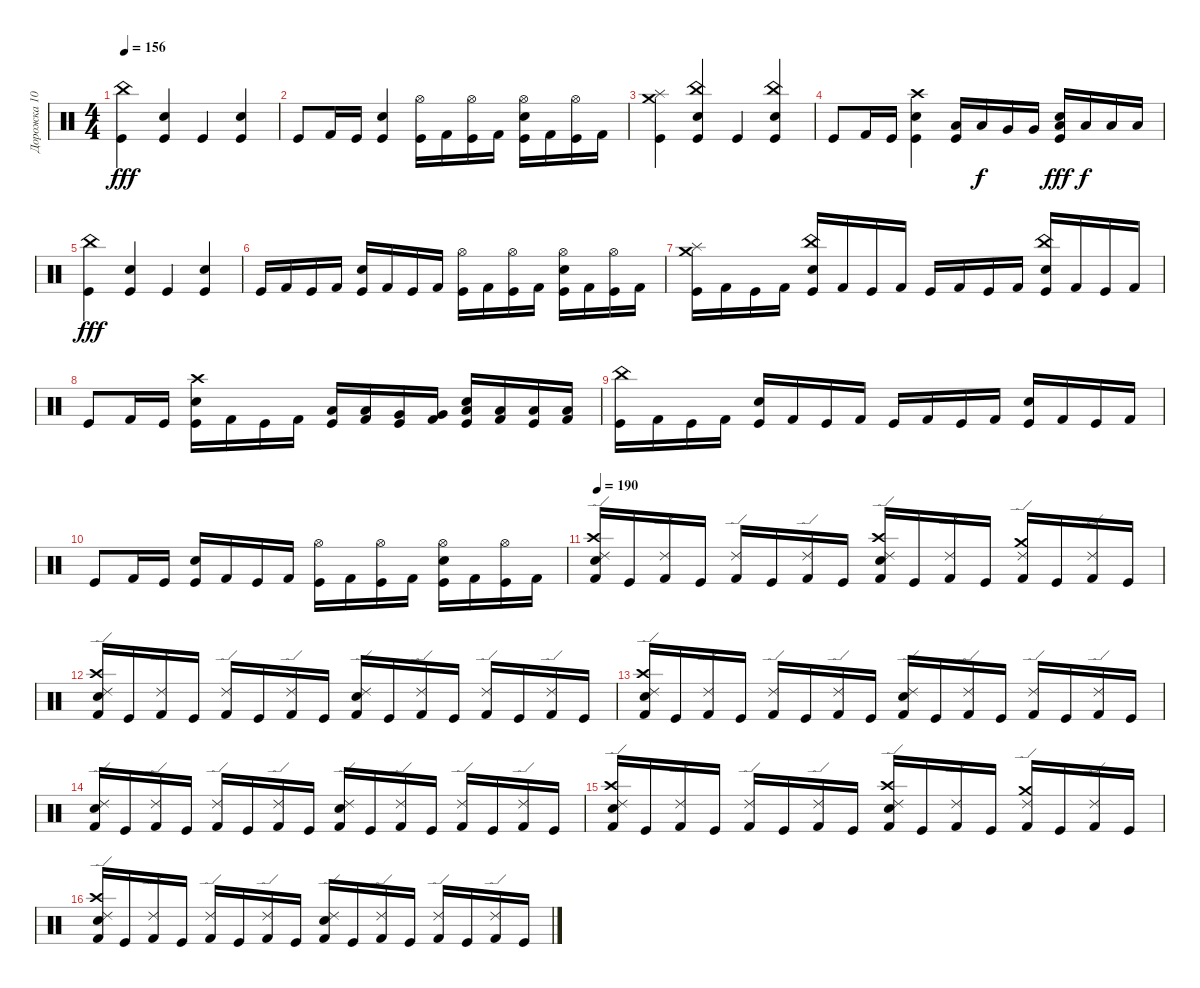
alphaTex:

\track ("Дорожка 10" "Дорожка 10") {instrument percussion}
\staff {score}
\articulation defaults
\ts (4 4)
\tempo 156
\clef neutral
\ks c
("Kick (hit)" "China (hit)").4{dy fff} ("Kick (hit)" "Snare (hit) 2").4 "Kick (hit)".4 ("Snare (hit) 2" "Kick (hit)").4 |
"Kick (hit)".8 "Kick (hit) 2".16 "Kick (hit)".16 ("Kick (hit)" "Snare (hit) 2").4 ("Hi-Hat (open)" "Kick (hit)").16 "Kick (hit) 2".16 ("Kick (hit)" "Hi-Hat (open)").16 "Kick (hit) 2".16 ("Snare (hit) 2" "Hi-Hat (open)" "Kick (hit)").16 "Kick (hit) 2".16 ("Kick (hit)" "Hi-Hat (open)").16 "Kick (hit) 2".16 |
("Kick (hit)" "Splash (hit)" "Crash medium (hit)").4 ("China (hit)" "Kick (hit)" "Snare (hit) 2").4 "Kick (hit)".4 ("China (hit)" "Kick (hit)" "Snare (hit) 2").4 |
"Kick (hit)".8 "Kick (hit) 2".16 "Kick (hit)".16 ("Kick (hit)" "Snare (hit) 2" "Crash high (hit)").4 ("Low Tom (hit)" "Kick (hit)").16 "Low Tom (hit)".16{dy f} "Very Low Tom (hit)".16 "Very Low Tom (hit)".16 ("Kick (hit)" "Snare (hit) 2" "Low Floor Tom (hit)").16{dy fff} "Low Floor Tom (hit)".16{dy f} "Low Floor Tom (hit)".16 "Low Floor Tom (hit)".16 |
("Kick (hit)" "China (hit)").4{dy fff} ("Kick (hit)" "Snare (hit) 2").4 "Kick (hit)".4 ("Kick (hit)" "Snare (hit) 2").4 |
"Kick (hit)".16 "Kick (hit) 2".16 "Kick (hit)".16 "Kick (hit) 2".16 ("Snare (hit) 2" "Kick (hit)").16 "Kick (hit) 2".16 "Kick (hit)".16 "Kick (hit) 2".16 ("Kick (hit)" "Hi-Hat (open)").16 "Kick (hit) 2".16 ("Hi-Hat (open)" "Kick (hit)").16 "Kick (hit) 2".16 ("Hi-Hat (open)" "Kick (hit)" "Snare (hit) 2").16 "Kick (hit) 2".16 ("Hi-Hat (open)" "Kick (hit)").16 "Kick (hit) 2".16 |
("Crash medium (hit)" "Kick (hit)" "Splash (hit)").16 "Kick (hit) 2".16 "Kick (hit)".16 "Kick (hit) 2".16 ("Snare (hit) 2" "Kick (hit)" "China (hit)").16 "Kick (hit) 2".16 "Kick (hit)".16 "Kick (hit) 2".16 "Kick (hit)".16 "Kick (hit) 2".16 "Kick (hit)".16 "Kick (hit) 2".16 ("Kick (hit)" "Snare (hit) 2" "China (hit)").16 "Kick (hit) 2".16 "Kick (hit)".16 "Kick (hit) 2".16 |
"Kick (hit)".8 "Kick (hit) 2".16 "Kick (hit)".16 ("Crash high (hit)" "Kick (hit)" "Snare (hit) 2").16 "Kick (hit) 2".16 "Kick (hit)".16 "Kick (hit) 2".16 ("Low Tom (hit)" "Kick (hit)").16 ("Kick (hit) 2" "Low Tom (hit)").16 ("Kick (hit)" "Very Low Tom (hit)").16 ("Kick (hit) 2" "Very Low Tom (hit)").16 ("Kick (hit)" "Snare (hit) 2" "Low Floor Tom (hit)").16 ("Low Floor Tom (hit)" "Kick (hit) 2").16 ("Low Floor Tom (hit)" "Kick (hit)").16 ("Kick (hit) 2" "Low Floor Tom (hit)").16 |
("China (hit)" "Kick (hit)").16 "Kick (hit) 2".16 "Kick (hit)".16 "Kick (hit) 2".16 ("Snare (hit) 2" "Kick (hit)").16 "Kick (hit) 2".16 "Kick (hit)".16 "Kick (hit) 2".16 "Kick (hit)".16 "Kick (hit) 2".16 "Kick (hit)".16 "Kick (hit) 2".16 ("Kick (hit)" "Snare (hit) 2").16 "Kick (hit) 2".16 "Kick (hit)".16 "Kick (hit) 2".16 |
"Kick (hit)".8 "Kick (hit) 2".16 "Kick (hit)".16 ("Snare (hit) 2" "Kick (hit)").16 "Kick (hit) 2".16 "Kick (hit)".16 "Kick (hit) 2".16 ("Kick (hit)" "Hi-Hat (open)").16 "Kick (hit) 2".16 ("Kick (hit)" "Hi-Hat (open)").16 "Kick (hit) 2".16 ("Snare (hit) 2" "Hi-Hat (open)" "Kick (hit)").16 "Kick (hit) 2".16 ("Hi-Hat (open)" "Kick (hit)").16 "Kick (hit) 2".16 |
\tempo 190
("Kick (hit) 2" "Ride (edge) 2" "Electric Snare (hit)" "Crash high (hit)").16 "Kick (hit)".16 ("Kick (hit) 2" "Ride (edge) 2").16 "Kick (hit)".16 ("Kick (hit) 2" "Ride (edge) 2").16 "Kick (hit)".16 ("Ride (edge) 2" "Kick (hit) 2").16 "Kick (hit)".16 ("Crash high (hit)" "Ride (edge) 2" "Electric Snare (hit)" "Kick (hit) 2").16 "Kick (hit)".16 ("Kick (hit) 2" "Ride (edge) 2").16 "Kick (hit)".16 ("Crash medium (hit)" "Ride (edge) 2" "Kick (hit) 2").16 "Kick (hit)".16 ("Kick (hit) 2" "Ride (edge) 2").16 "Kick (hit)".16 |
("Crash high (hit)" "Kick (hit) 2" "Electric Snare (hit)" "Ride (edge) 2").16 "Kick (hit)".16 ("Kick (hit) 2" "Ride (edge) 2").16 "Kick (hit)".16 ("Kick (hit) 2" "Ride (edge) 2").16 "Kick (hit)".16 ("Ride (edge) 2" "Kick (hit) 2").16 "Kick (hit)".16 ("Electric Snare (hit)" "Kick (hit) 2" "Ride (edge) 2").16 "Kick (hit)".16 ("Ride (edge) 2" "Kick (hit) 2").16 "Kick (hit)".16 ("Ride (edge) 2" "Kick (hit) 2").16 "Kick (hit)".16 ("Ride (edge) 2" "Kick (hit) 2").16 "Kick (hit)".16 |
("Ride (edge) 2" "Kick (hit) 2" "Crash high (hit)" "Electric Snare (hit)").16 "Kick (hit)".16 ("Kick (hit) 2" "Ride (edge) 2").16 "Kick (hit)".16 ("Kick (hit) 2" "Ride (edge) 2").16 "Kick (hit)".16 ("Kick (hit) 2" "Ride (edge) 2").16 "Kick (hit)".16 ("Kick (hit) 2" "Ride (edge) 2" "Electric Snare (hit)").16 "Kick (hit)".16 ("Ride (edge) 2" "Kick (hit) 2").16 "Kick (hit)".16 ("Ride (edge) 2" "Kick (hit) 2").16 "Kick (hit)".16 ("Ride (edge) 2" "Kick (hit) 2").16 "Kick (hit)".16 |
("Kick (hit) 2" "Ride (edge) 2" "Electric Snare (hit)").16 "Kick (hit)".16 ("Kick (hit) 2" "Ride (edge) 2").16 "Kick (hit)".16 ("Kick (hit) 2" "Ride (edge) 2").16 "Kick (hit)".16 ("Kick (hit) 2" "Ride (edge) 2").16 "Kick (hit)".16 ("Ride (edge) 2" "Kick (hit) 2" "Electric Snare (hit)").16 "Kick (hit)".16 ("Ride (edge) 2" "Kick (hit) 2").16 "Kick (hit)".16 ("Kick (hit) 2" "Ride (edge) 2").16 "Kick (hit)".16 ("Ride (edge) 2" "Kick (hit) 2").16 "Kick (hit)".16 |
("Kick (hit) 2" "Electric Snare (hit)" "Ride (edge) 2" "Crash high (hit)").16 "Kick (hit)".16 ("Kick (hit) 2" "Ride (edge) 2").16 "Kick (hit)".16 ("Ride (edge) 2" "Kick (hit) 2").16 "Kick (hit)".16 ("Ride (edge) 2" "Kick (hit) 2").16 "Kick (hit)".16 ("Kick (hit) 2" "Ride (edge) 2" "Electric Snare (hit)" "Crash high (hit)").16 "Kick (hit)".16 ("Kick (hit) 2" "Ride (edge) 2").16 "Kick (hit)".16 ("Kick (hit) 2" "Ride (edge) 2" "Crash medium (hit)").16 "Kick (hit)".16 ("Kick (hit) 2" "Ride (edge) 2").16 "Kick (hit)".16 |
("Kick (hit) 2" "Crash high (hit)" "Ride (edge) 2" "Electric Snare (hit)").16 "Kick (hit)".16 ("Kick (hit) 2" "Ride (edge) 2").16 "Kick (hit)".16 ("Ride (edge) 2" "Kick (hit) 2").16 "Kick (hit)".16 ("Ride (edge) 2" "Kick (hit) 2").16 "Kick (hit)".16 ("Ride (edge) 2" "Electric Snare (hit)" "Kick (hit) 2").16 "Kick (hit)".16 ("Kick (hit) 2" "Ride (edge) 2").16 "Kick (hit)".16 ("Ride (edge) 2" "Kick (hit) 2").16 "Kick (hit)".16 ("Kick (hit) 2" "Ride (edge) 2").16 "Kick (hit)".16
